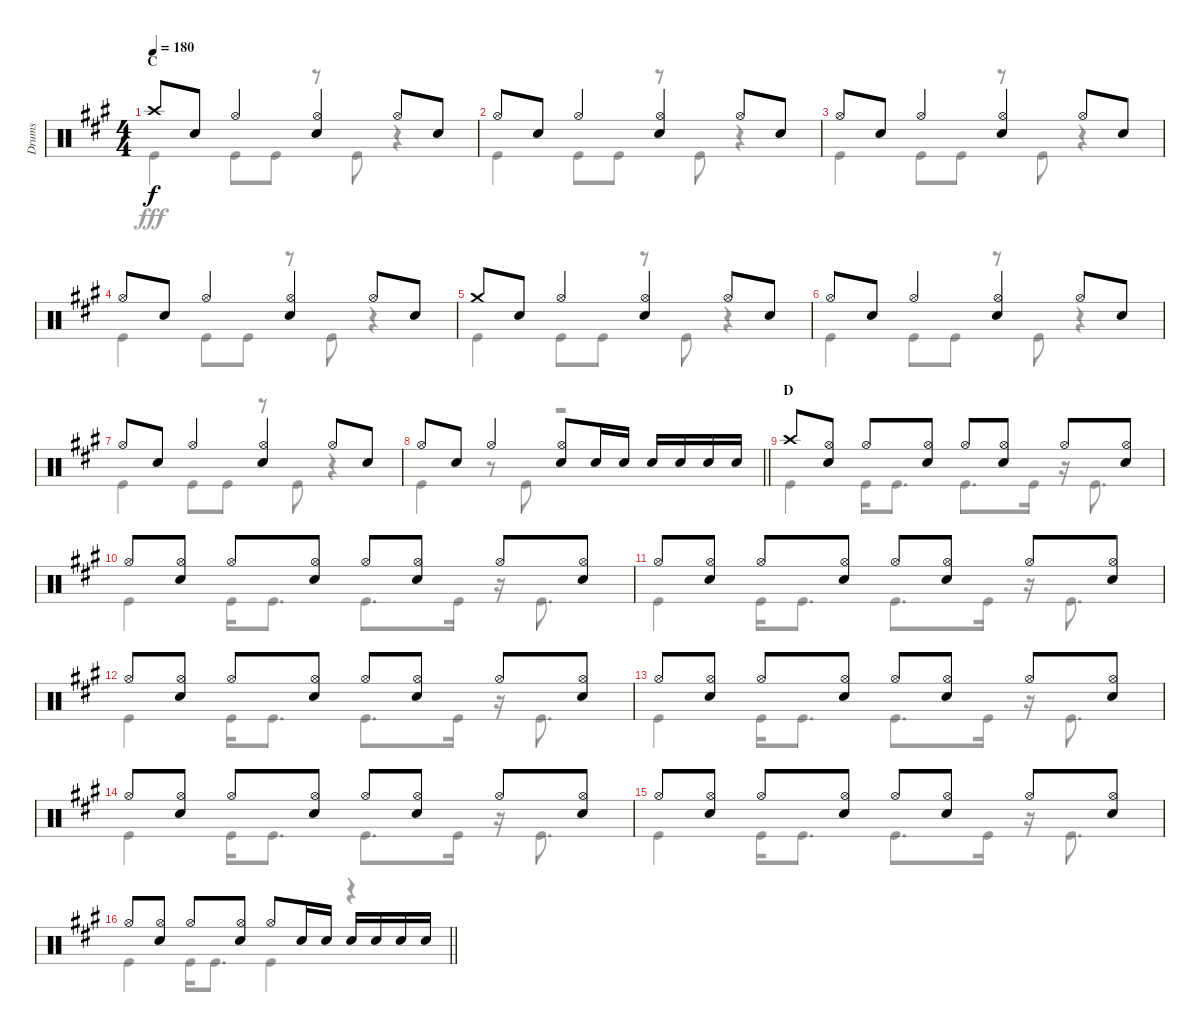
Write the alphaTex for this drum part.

\track ("Drums" "Drums") {instrument percussion}
\staff {score}
\articulation defaults
\voice
\ts (4 4)
\section ("" "C")
\tempo 180
\clef neutral
\ks a "Crash high (hit)".8{dy f} "Snare (hit) 2".8 "Hi-Hat (open)".4
("Hi-Hat (open)" "Snare (hit) 2").4 "Hi-Hat (open)".8 "Snare (hit) 2".8 |
"Hi-Hat (open)".8 "Snare (hit) 2".8 "Hi-Hat (open)".4 ("Hi-Hat (open)" "Snare (hit) 2").4 "Hi-Hat (open)".8 "Snare (hit) 2".8 |
"Hi-Hat (open)".8 "Snare (hit) 2".8 "Hi-Hat (open)".4 ("Hi-Hat (open)" "Snare (hit) 2").4 "Hi-Hat (open)".8 "Snare (hit) 2".8 |
"Hi-Hat (open)".8 "Snare (hit) 2".8 "Hi-Hat (open)".4 ("Hi-Hat (open)" "Snare (hit) 2").4 "Hi-Hat (open)".8 "Snare (hit) 2".8 |
"Crash medium (hit)".8 "Snare (hit) 2".8 "Hi-Hat (open)".4 ("Hi-Hat (open)" "Snare (hit) 2").4 "Hi-Hat (open)".8 "Snare (hit) 2".8 |
"Hi-Hat (open)".8 "Snare (hit) 2".8 "Hi-Hat (open)".4 ("Hi-Hat (open)" "Snare (hit) 2").4 "Hi-Hat (open)".8 "Snare (hit) 2".8 |
"Hi-Hat (open)".8 "Snare (hit) 2".8 "Hi-Hat (open)".4 ("Hi-Hat (open)" "Snare (hit) 2").4 "Hi-Hat (open)".8 "Snare (hit) 2".8 |
\barLineRight lightlight "Hi-Hat (open)".8 "Snare (hit) 2".8 "Hi-Hat (open)".4
("Hi-Hat (open)" "Snare (hit) 2").8 "Snare (hit) 2".16 "Snare (hit) 2".16 "Snare (hit) 2".16 "Snare (hit) 2".16 "Snare (hit) 2".16 "Snare (hit) 2".16 |
\section ("" "D")
"Crash high (hit)".8 ("Hi-Hat (open)" "Snare (hit) 2").8 "Hi-Hat (open)".8 ("Hi-Hat (open)" "Snare (hit) 2").8 "Hi-Hat (open)".8 ("Hi-Hat (open)" "Snare (hit) 2").8 "Hi-Hat (open)".8 ("Hi-Hat (open)" "Snare (hit) 2").8 |
"Hi-Hat (open)".8 ("Hi-Hat (open)" "Snare (hit) 2").8 "Hi-Hat (open)".8 ("Hi-Hat (open)" "Snare (hit) 2").8 "Hi-Hat (open)".8 ("Hi-Hat (open)" "Snare (hit) 2").8 "Hi-Hat (open)".8 ("Hi-Hat (open)" "Snare (hit) 2").8 |
"Hi-Hat (open)".8 ("Hi-Hat (open)" "Snare (hit) 2").8 "Hi-Hat (open)".8 ("Hi-Hat (open)" "Snare (hit) 2").8 "Hi-Hat (open)".8 ("Hi-Hat (open)" "Snare (hit) 2").8 "Hi-Hat (open)".8 ("Hi-Hat (open)" "Snare (hit) 2").8 |
"Hi-Hat (open)".8 ("Hi-Hat (open)" "Snare (hit) 2").8 "Hi-Hat (open)".8 ("Hi-Hat (open)" "Snare (hit) 2").8 "Hi-Hat (open)".8 ("Hi-Hat (open)" "Snare (hit) 2").8 "Hi-Hat (open)".8 ("Hi-Hat (open)" "Snare (hit) 2").8 |
"Hi-Hat (open)".8 ("Hi-Hat (open)" "Snare (hit) 2").8 "Hi-Hat (open)".8 ("Hi-Hat (open)" "Snare (hit) 2").8 "Hi-Hat (open)".8 ("Hi-Hat (open)" "Snare (hit) 2").8 "Hi-Hat (open)".8 ("Hi-Hat (open)" "Snare (hit) 2").8 |
"Hi-Hat (open)".8 ("Hi-Hat (open)" "Snare (hit) 2").8 "Hi-Hat (open)".8 ("Hi-Hat (open)" "Snare (hit) 2").8 "Hi-Hat (open)".8 ("Hi-Hat (open)" "Snare (hit) 2").8 "Hi-Hat (open)".8 ("Hi-Hat (open)" "Snare (hit) 2").8 |
"Hi-Hat (open)".8 ("Hi-Hat (open)" "Snare (hit) 2").8 "Hi-Hat (open)".8 ("Hi-Hat (open)" "Snare (hit) 2").8 "Hi-Hat (open)".8 ("Hi-Hat (open)" "Snare (hit) 2").8 "Hi-Hat (open)".8 ("Hi-Hat (open)" "Snare (hit) 2").8 |
\barLineRight lightlight "Hi-Hat (open)".8
("Hi-Hat (open)" "Snare (hit) 2").8 "Hi-Hat (open)".8 ("Hi-Hat (open)" "Snare (hit) 2").8 "Hi-Hat (open)".8 "Snare (hit) 2".16 "Snare (hit) 2".16 "Snare (hit) 2".16 "Snare (hit) 2".16 "Snare (hit) 2".16 "Snare (hit) 2".16
\voice
\clef neutral
\ottava regular
\simile none
\ks a "Kick (hit)".4{dy fff} "Kick (hit)".8 "Kick (hit)".8
r.8 "Kick (hit)".8 r.4 |
"Kick (hit)".4 "Kick (hit)".8 "Kick (hit)".8 r.8 "Kick (hit)".8 r.4 |
"Kick (hit)".4 "Kick (hit)".8 "Kick (hit)".8 r.8 "Kick (hit)".8 r.4 |
"Kick (hit)".4 "Kick (hit)".8 "Kick (hit)".8 r.8 "Kick (hit)".8 r.4 |
"Kick (hit)".4 "Kick (hit)".8 "Kick (hit)".8 r.8 "Kick (hit)".8 r.4 |
"Kick (hit)".4 "Kick (hit)".8 "Kick (hit)".8 r.8 "Kick (hit)".8 r.4 |
"Kick (hit)".4 "Kick (hit)".8 "Kick (hit)".8 r.8 "Kick (hit)".8 r.4 |
\barLineRight lightlight "Kick (hit)".4
r.8 "Kick (hit)".8 r.2 |
"Kick (hit)".4 "Kick (hit)".16 "Kick (hit)".8{d} "Kick (hit)".8{d} "Kick (hit)".16 r.16 "Kick (hit)".8{d} |
"Kick (hit)".4 "Kick (hit)".16 "Kick (hit)".8{d} "Kick (hit)".8{d} "Kick (hit)".16 r.16 "Kick (hit)".8{d} |
"Kick (hit)".4 "Kick (hit)".16 "Kick (hit)".8{d} "Kick (hit)".8{d} "Kick (hit)".16 r.16 "Kick (hit)".8{d} |
"Kick (hit)".4 "Kick (hit)".16 "Kick (hit)".8{d} "Kick (hit)".8{d} "Kick (hit)".16 r.16 "Kick (hit)".8{d} |
"Kick (hit)".4 "Kick (hit)".16 "Kick (hit)".8{d} "Kick (hit)".8{d} "Kick (hit)".16 r.16 "Kick (hit)".8{d} |
"Kick (hit)".4 "Kick (hit)".16 "Kick (hit)".8{d} "Kick (hit)".8{d} "Kick (hit)".16 r.16 "Kick (hit)".8{d} |
"Kick (hit)".4 "Kick (hit)".16 "Kick (hit)".8{d} "Kick (hit)".8{d} "Kick (hit)".16 r.16 "Kick (hit)".8{d} |
\barLineRight lightlight "Kick (hit)".4 "Kick (hit)".16 "Kick (hit)".8{d} "Kick (hit)".4
r.4
